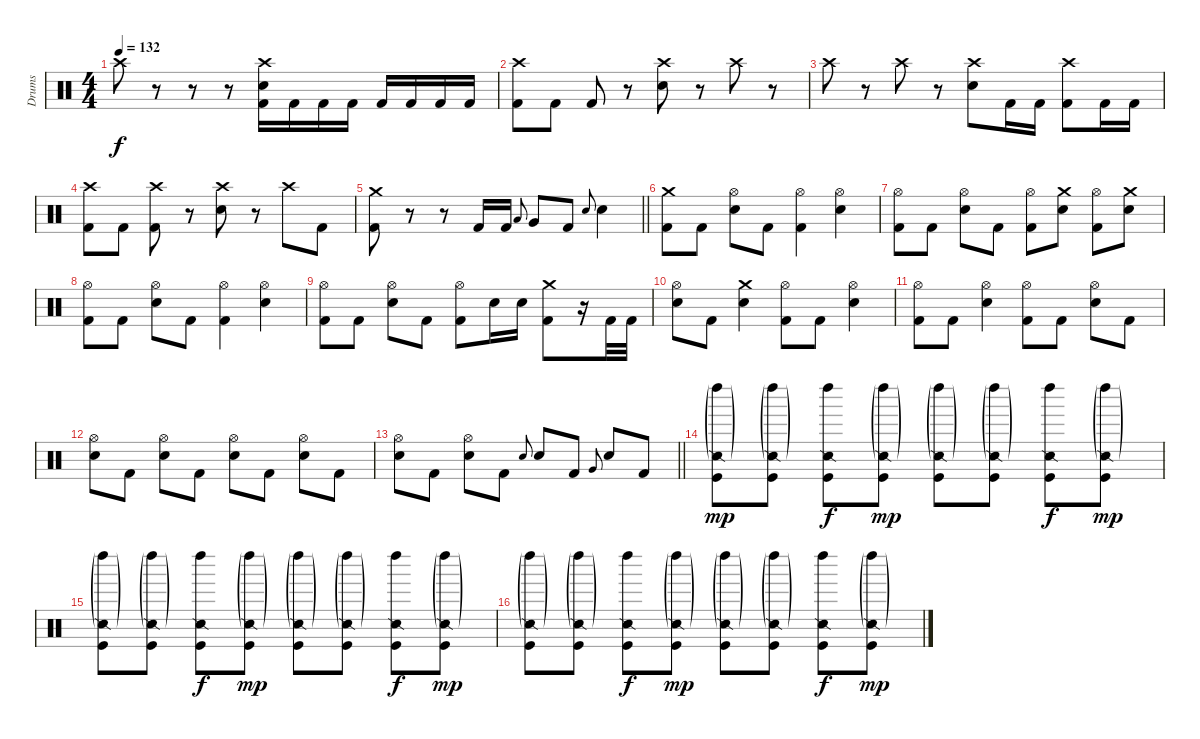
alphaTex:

\track ("Drums" "Drums") {instrument percussion}
\staff {score}
\articulation defaults
\ts (4 4)
\tempo 132
\clef neutral
\ks c "Crash high (hit)".8{dy f}
r.8 r.8 r.8 ("Crash high (hit)" "Electric Snare (hit)" "Kick (hit) 2").16 "Kick (hit) 2".16 "Kick (hit) 2".16 "Kick (hit) 2".16 "Kick (hit) 2".16 "Kick (hit) 2".16 "Kick (hit) 2".16 "Kick (hit) 2".16 |
("Crash high (hit)" "Kick (hit) 2").8 "Kick (hit) 2".8 "Kick (hit) 2".8 r.8 ("Crash high (hit)" "Electric Snare (hit)").8 r.8 "Crash high (hit)".8 r.8 |
"Crash high (hit)".8 r.8 "Crash high (hit)".8 r.8 ("Crash high (hit)" "Electric Snare (hit)").8 "Kick (hit) 2".16 "Kick (hit) 2".16 ("Crash high (hit)" "Kick (hit) 2").8 "Kick (hit) 2".16 "Kick (hit) 2".16 |
("Crash high (hit)" "Kick (hit) 2").8 "Kick (hit) 2".8 ("Crash high (hit)" "Kick (hit) 2").8 r.8 ("Crash high (hit)" "Electric Snare (hit)").8 r.8 "Crash high (hit)".8 "Kick (hit) 2".8 |
\barLineRight lightlight
("Crash medium (hit)" "Kick (hit) 2").8 r.8 r.8 "Kick (hit) 2".16 "Kick (hit) 2".16 "Low Tom (hit)".8{gr onbeat} "Very Low Tom (hit)".8 "Kick (hit) 2".8 "Electric Snare (hit)".8{gr onbeat} "Electric Snare (hit)".4 |
\section ("" "")
("Crash medium (hit)" "Kick (hit) 2").8 "Kick (hit) 2".8 ("Hi-Hat (open)" "Electric Snare (hit)").8 "Kick (hit) 2".8 ("Hi-Hat (open)" "Kick (hit) 2").4 ("Hi-Hat (open)" "Electric Snare (hit)").4 |
("Hi-Hat (open)" "Kick (hit) 2").8 "Kick (hit) 2".8 ("Hi-Hat (open)" "Electric Snare (hit)").8 "Kick (hit) 2".8 ("Hi-Hat (open)" "Kick (hit) 2").8 ("Crash medium (hit)" "Electric Snare (hit)").8 ("Hi-Hat (open)" "Kick (hit) 2").8 ("Crash medium (hit)" "Electric Snare (hit)").8 |
("Hi-Hat (open)" "Kick (hit) 2").8 "Kick (hit) 2".8 ("Hi-Hat (open)" "Electric Snare (hit)").8 "Kick (hit) 2".8 ("Hi-Hat (open)" "Kick (hit) 2").4 ("Hi-Hat (open)" "Electric Snare (hit)").4 |
("Hi-Hat (open)" "Kick (hit) 2").8 "Kick (hit) 2".8 ("Hi-Hat (open)" "Electric Snare (hit)").8 "Kick (hit) 2".8 ("Hi-Hat (open)" "Kick (hit) 2").8 "Electric Snare (hit)".16 "Electric Snare (hit)".16 ("Crash medium (hit)" "Kick (hit) 2").8 r.16 "Kick (hit) 2".32 "Kick (hit) 2".32 |
("Hi-Hat (open)" "Electric Snare (hit)").8 "Kick (hit) 2".8 ("Crash medium (hit)" "Electric Snare (hit)").4 ("Hi-Hat (open)" "Kick (hit) 2").8 "Kick (hit) 2".8 ("Hi-Hat (open)" "Electric Snare (hit)").4 |
("Hi-Hat (open)" "Kick (hit) 2").8 "Kick (hit) 2".8 ("Hi-Hat (open)" "Electric Snare (hit)").4 ("Hi-Hat (open)" "Kick (hit) 2").8 "Kick (hit) 2".8 ("Hi-Hat (open)" "Electric Snare (hit)").8 "Kick (hit) 2".8 |
("Hi-Hat (open)" "Electric Snare (hit)").8 "Kick (hit) 2".8 ("Hi-Hat (open)" "Electric Snare (hit)").8 "Kick (hit) 2".8 ("Hi-Hat (open)" "Electric Snare (hit)").8 "Kick (hit) 2".8 ("Hi-Hat (open)" "Electric Snare (hit)").8 "Kick (hit) 2".8 |
\barLineRight lightlight
("Hi-Hat (open)" "Electric Snare (hit)").8 "Kick (hit) 2".8 ("Hi-Hat (open)" "Electric Snare (hit)").8 "Kick (hit) 2".8 "Electric Snare (hit)".8{gr onbeat} "Electric Snare (hit)".8 "Kick (hit) 2".8 "Very Low Tom (hit)".8{gr onbeat} "Electric Snare (hit)".8 "Kick (hit) 2".8 |
\section ("" "")
("Left Maraca (hit)"{g} "Snare (side stick) 2"{g} "Kick (hit)").8{dy mp} ("Left Maraca (hit)"{g} "Snare (side stick) 2"{g} "Kick (hit)").8 ("Left Maraca (hit)" "Snare (side stick) 2" "Kick (hit)").8{dy f} ("Left Maraca (hit)"{g} "Snare (side stick) 2"{g} "Kick (hit)").8{dy mp} ("Left Maraca (hit)"{g} "Snare (side stick) 2"{g} "Kick (hit)").8 ("Left Maraca (hit)"{g} "Snare (side stick) 2"{g} "Kick (hit)").8 ("Left Maraca (hit)" "Snare (side stick) 2" "Kick (hit)").8{dy f} ("Left Maraca (hit)"{g} "Snare (side stick) 2"{g} "Kick (hit)").8{dy mp} |
("Left Maraca (hit)"{g} "Snare (side stick) 2"{g} "Kick (hit)").8 ("Left Maraca (hit)"{g} "Snare (side stick) 2"{g} "Kick (hit)").8 ("Left Maraca (hit)" "Snare (side stick) 2" "Kick (hit)").8{dy f} ("Left Maraca (hit)"{g} "Snare (side stick) 2"{g} "Kick (hit)").8{dy mp} ("Left Maraca (hit)"{g} "Snare (side stick) 2"{g} "Kick (hit)").8 ("Left Maraca (hit)"{g} "Snare (side stick) 2"{g} "Kick (hit)").8 ("Left Maraca (hit)" "Snare (side stick) 2" "Kick (hit)").8{dy f} ("Left Maraca (hit)"{g} "Snare (side stick) 2"{g} "Kick (hit)").8{dy mp} |
("Left Maraca (hit)"{g} "Snare (side stick) 2"{g} "Kick (hit)").8 ("Left Maraca (hit)"{g} "Snare (side stick) 2"{g} "Kick (hit)").8 ("Left Maraca (hit)" "Snare (side stick) 2" "Kick (hit)").8{dy f} ("Left Maraca (hit)"{g} "Snare (side stick) 2"{g} "Kick (hit)").8{dy mp} ("Left Maraca (hit)"{g} "Snare (side stick) 2"{g} "Kick (hit)").8 ("Left Maraca (hit)"{g} "Snare (side stick) 2"{g} "Kick (hit)").8 ("Left Maraca (hit)" "Snare (side stick) 2" "Kick (hit)").8{dy f} ("Left Maraca (hit)"{g} "Snare (side stick) 2"{g} "Kick (hit)").8{dy mp}
